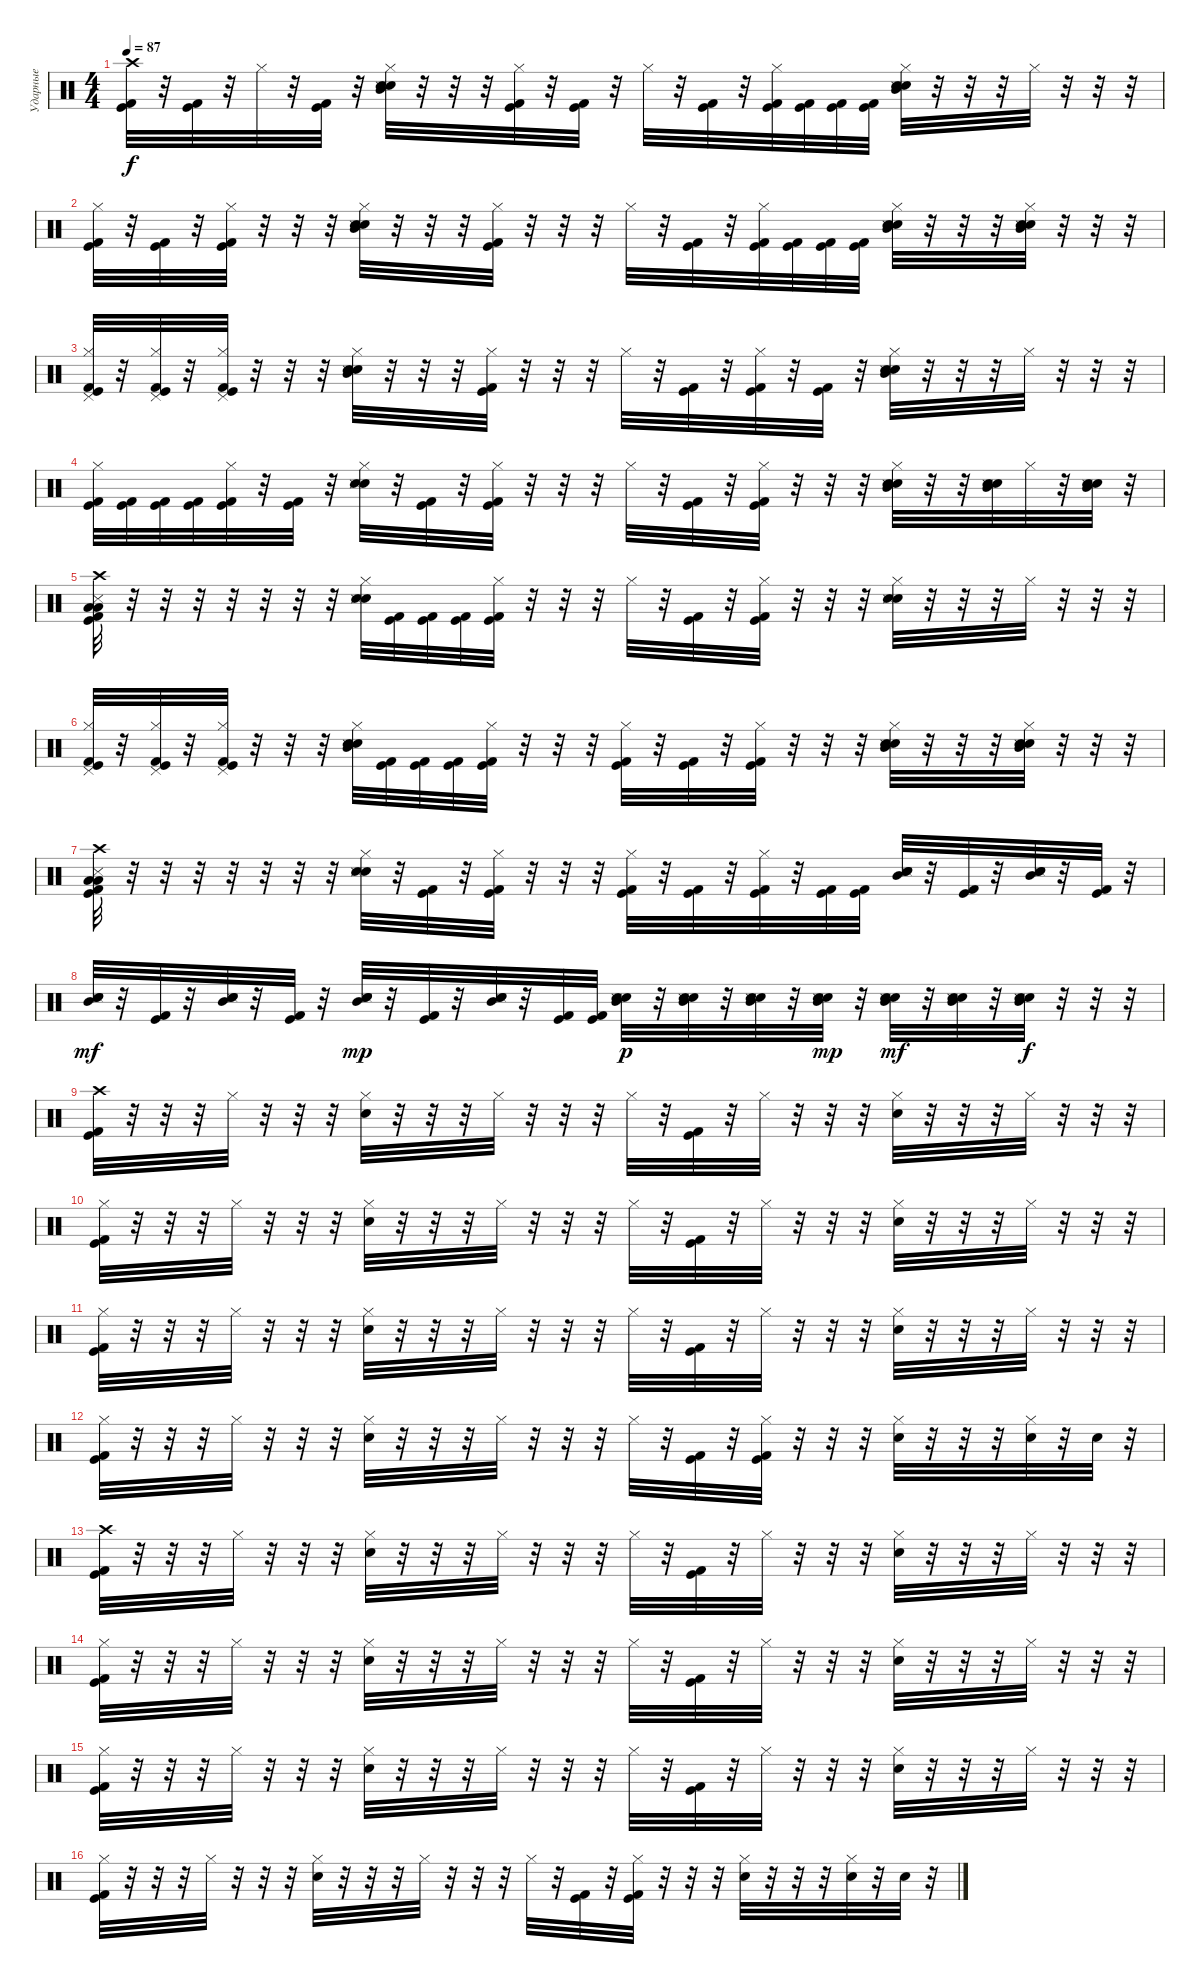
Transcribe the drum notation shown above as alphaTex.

\track ("Ударные" "Ударные") {instrument percussion}
\staff {score}
\articulation defaults
\ts (4 4)
\tempo 87
\clef neutral
\ks c
("Crash high (hit)" "Kick (hit) 2" "Kick (hit)").32{dy f} r.32 ("Kick (hit) 2" "Kick (hit)").32 r.32 "Hi-Hat (closed)".32 r.32 ("Kick (hit) 2" "Kick (hit)").32 r.32 ("Hi-Hat (closed)" "Electric Snare (hit)" "Snare (hit) 2" "Snare (side stick) 3" "Mid Tom (hit)").32 r.32 r.32 r.32 ("Hi-Hat (closed)" "Kick (hit) 2" "Kick (hit)").32 r.32 ("Kick (hit) 2" "Kick (hit)").32 r.32 "Hi-Hat (closed)".32 r.32 ("Kick (hit) 2" "Kick (hit)").32 r.32 ("Hi-Hat (closed)" "Kick (hit) 2" "Kick (hit)").32 ("Kick (hit) 2" "Kick (hit)").32 ("Kick (hit) 2" "Kick (hit)").32 ("Kick (hit) 2" "Kick (hit)").32 ("Hi-Hat (closed)" "Electric Snare (hit)" "Snare (hit) 2" "Snare (side stick) 3" "Mid Tom (hit)").32 r.32 r.32 r.32 "Hi-Hat (closed)".32 r.32 r.32 r.32 |
("Hi-Hat (closed)" "Kick (hit) 2" "Kick (hit)").32 r.32 ("Kick (hit) 2" "Kick (hit)").32 r.32 ("Hi-Hat (closed)" "Kick (hit) 2" "Kick (hit)").32 r.32 r.32 r.32 ("Hi-Hat (closed)" "Electric Snare (hit)" "Snare (hit) 2" "Snare (side stick) 3" "Mid Tom (hit)").32 r.32 r.32 r.32 ("Hi-Hat (closed)" "Kick (hit) 2" "Kick (hit)").32 r.32 r.32 r.32 "Hi-Hat (closed)".32 r.32 ("Kick (hit) 2" "Kick (hit)").32 r.32 ("Hi-Hat (closed)" "Kick (hit) 2" "Kick (hit)").32 ("Kick (hit) 2" "Kick (hit)").32 ("Kick (hit) 2" "Kick (hit)").32 ("Kick (hit) 2" "Kick (hit)").32 ("Hi-Hat (closed)" "Electric Snare (hit)" "Snare (hit) 2" "Snare (side stick) 3" "Mid Tom (hit)").32 r.32 r.32 r.32 ("Hi-Hat (closed)" "Electric Snare (hit)" "Snare (hit) 2" "Snare (side stick) 3" "Mid Tom (hit)").32 r.32 r.32 r.32 |
("Hi-Hat (closed)" "Pedal Hi-Hat (hit)" "Kick (hit) 2" "Kick (hit)").32 r.32 ("Hi-Hat (closed)" "Pedal Hi-Hat (hit)" "Kick (hit) 2" "Kick (hit)").32 r.32 ("Hi-Hat (closed)" "Pedal Hi-Hat (hit)" "Kick (hit) 2" "Kick (hit)").32 r.32 r.32 r.32 ("Hi-Hat (closed)" "Electric Snare (hit)" "Snare (hit) 2" "Snare (side stick) 3" "Mid Tom (hit)").32 r.32 r.32 r.32 ("Hi-Hat (closed)" "Kick (hit) 2" "Kick (hit)").32 r.32 r.32 r.32 "Hi-Hat (closed)".32 r.32 ("Kick (hit) 2" "Kick (hit)").32 r.32 ("Hi-Hat (closed)" "Kick (hit) 2" "Kick (hit)").32 r.32 ("Kick (hit) 2" "Kick (hit)").32 r.32 ("Hi-Hat (closed)" "Electric Snare (hit)" "Snare (hit) 2" "Snare (side stick) 3" "Mid Tom (hit)").32 r.32 r.32 r.32 "Hi-Hat (closed)".32 r.32 r.32 r.32 |
("Hi-Hat (closed)" "Kick (hit) 2" "Kick (hit)").32 ("Kick (hit) 2" "Kick (hit)").32 ("Kick (hit) 2" "Kick (hit)").32 ("Kick (hit) 2" "Kick (hit)").32 ("Hi-Hat (closed)" "Kick (hit) 2" "Kick (hit)").32 r.32 ("Kick (hit) 2" "Kick (hit)").32 r.32 ("Hi-Hat (closed)" "Electric Snare (hit)" "Snare (hit) 2" "Snare (side stick) 3").32 r.32 ("Kick (hit) 2" "Kick (hit)").32 r.32 ("Hi-Hat (closed)" "Kick (hit) 2" "Kick (hit)").32 r.32 r.32 r.32 "Hi-Hat (closed)".32 r.32 ("Kick (hit) 2" "Kick (hit)").32 r.32 ("Hi-Hat (closed)" "Kick (hit) 2" "Kick (hit)").32 r.32 r.32 r.32 ("Hi-Hat (closed)" "Electric Snare (hit)" "Snare (hit) 2" "Snare (side stick) 3" "Mid Tom (hit)").32 r.32 r.32 ("Electric Snare (hit)" "Snare (hit) 2" "Snare (side stick) 3" "Mid Tom (hit)").32 "Hi-Hat (closed)".32 r.32 ("Electric Snare (hit)" "Snare (hit) 2" "Snare (side stick) 3" "Mid Tom (hit)").32 r.32 |
("Crash high (hit)" "Low Floor Tom (hit)" "Low Tom (hit)" "Snare (side stick) 3" "Kick (hit) 2" "Kick (hit)").32 r.32 r.32 r.32 r.32 r.32 r.32 r.32 ("Hi-Hat (closed)" "Electric Snare (hit)" "Snare (hit) 2" "Snare (side stick) 3").32 ("Kick (hit) 2" "Kick (hit)").32 ("Kick (hit) 2" "Kick (hit)").32 ("Kick (hit) 2" "Kick (hit)").32 ("Hi-Hat (closed)" "Kick (hit) 2" "Kick (hit)").32 r.32 r.32 r.32 "Hi-Hat (closed)".32 r.32 ("Kick (hit) 2" "Kick (hit)").32 r.32 ("Hi-Hat (closed)" "Kick (hit) 2" "Kick (hit)").32 r.32 r.32 r.32 ("Hi-Hat (closed)" "Electric Snare (hit)" "Snare (hit) 2" "Snare (side stick) 3").32 r.32 r.32 r.32 "Hi-Hat (closed)".32 r.32 r.32 r.32 |
("Hi-Hat (closed)" "Pedal Hi-Hat (hit)" "Kick (hit) 2" "Kick (hit)").32 r.32 ("Hi-Hat (closed)" "Pedal Hi-Hat (hit)" "Kick (hit) 2" "Kick (hit)").32 r.32 ("Hi-Hat (closed)" "Pedal Hi-Hat (hit)" "Kick (hit) 2" "Kick (hit)").32 r.32 r.32 r.32 ("Hi-Hat (closed)" "Electric Snare (hit)" "Snare (hit) 2" "Snare (side stick) 3" "Mid Tom (hit)").32 ("Kick (hit) 2" "Kick (hit)").32 ("Kick (hit) 2" "Kick (hit)").32 ("Kick (hit) 2" "Kick (hit)").32 ("Hi-Hat (closed)" "Kick (hit) 2" "Kick (hit)").32 r.32 r.32 r.32 ("Hi-Hat (closed)" "Kick (hit) 2" "Kick (hit)").32 r.32 ("Kick (hit) 2" "Kick (hit)").32 r.32 ("Hi-Hat (closed)" "Kick (hit) 2" "Kick (hit)").32 r.32 r.32 r.32 ("Hi-Hat (closed)" "Electric Snare (hit)" "Snare (hit) 2" "Snare (side stick) 3" "Mid Tom (hit)").32 r.32 r.32 r.32 ("Hi-Hat (closed)" "Electric Snare (hit)" "Snare (hit) 2" "Snare (side stick) 3" "Mid Tom (hit)").32 r.32 r.32 r.32 |
("Crash high (hit)" "Low Floor Tom (hit)" "Low Tom (hit)" "Snare (side stick) 3" "Kick (hit) 2" "Kick (hit)").32 r.32 r.32 r.32 r.32 r.32 r.32 r.32 ("Hi-Hat (closed)" "Electric Snare (hit)" "Snare (hit) 2" "Snare (side stick) 3").32 r.32 ("Kick (hit) 2" "Kick (hit)").32 r.32 ("Hi-Hat (closed)" "Kick (hit) 2" "Kick (hit)").32 r.32 r.32 r.32 ("Hi-Hat (closed)" "Kick (hit) 2" "Kick (hit)").32 r.32 ("Kick (hit) 2" "Kick (hit)").32 r.32 ("Hi-Hat (closed)" "Kick (hit) 2" "Kick (hit)").32 r.32 ("Kick (hit) 2" "Kick (hit)").32 ("Kick (hit) 2" "Kick (hit)").32 ("Electric Snare (hit)" "Snare (hit) 2" "Snare (side stick) 3" "Mid Tom (hit)").32 r.32 ("Kick (hit) 2" "Kick (hit)").32 r.32 ("Electric Snare (hit)" "Snare (hit) 2" "Snare (side stick) 3" "Mid Tom (hit)").32 r.32 ("Kick (hit) 2" "Kick (hit)").32 r.32 |
("Electric Snare (hit)" "Snare (hit) 2" "Snare (side stick) 3" "Mid Tom (hit)").32{dy mf} r.32 ("Kick (hit) 2" "Kick (hit)").32 r.32 ("Electric Snare (hit)" "Snare (hit) 2" "Snare (side stick) 3" "Mid Tom (hit)").32 r.32 ("Kick (hit) 2" "Kick (hit)").32 r.32 ("Electric Snare (hit)" "Snare (hit) 2" "Snare (side stick) 3" "Mid Tom (hit)").32{dy mp} r.32 ("Kick (hit) 2" "Kick (hit)").32 r.32 ("Electric Snare (hit)" "Snare (hit) 2" "Snare (side stick) 3" "Mid Tom (hit)").32 r.32 ("Kick (hit) 2" "Kick (hit)").32 ("Kick (hit) 2" "Kick (hit)").32 ("Electric Snare (hit)" "Snare (hit) 2" "Snare (side stick) 3" "Mid Tom (hit)").32{dy p} r.32 ("Electric Snare (hit)" "Snare (hit) 2" "Snare (side stick) 3" "Mid Tom (hit)").32 r.32 ("Electric Snare (hit)" "Snare (hit) 2" "Snare (side stick) 3" "Mid Tom (hit)").32 r.32 ("Electric Snare (hit)" "Snare (hit) 2" "Snare (side stick) 3" "Mid Tom (hit)").32{dy mp} r.32 ("Electric Snare (hit)" "Snare (hit) 2" "Snare (side stick) 3" "Mid Tom (hit)").32{dy mf} r.32 ("Electric Snare (hit)" "Snare (hit) 2" "Snare (side stick) 3" "Mid Tom (hit)").32 r.32 ("Electric Snare (hit)" "Snare (hit) 2" "Snare (side stick) 3" "Mid Tom (hit)").32{dy f} r.32 r.32 r.32 |
("Crash high (hit)" "Kick (hit) 2" "Kick (hit)").32 r.32 r.32 r.32 "Hi-Hat (closed)".32 r.32 r.32 r.32 ("Hi-Hat (closed)" "Electric Snare (hit)").32 r.32 r.32 r.32 "Hi-Hat (closed)".32 r.32 r.32 r.32 "Hi-Hat (closed)".32 r.32 ("Kick (hit) 2" "Kick (hit)").32 r.32 "Hi-Hat (closed)".32 r.32 r.32 r.32 ("Hi-Hat (closed)" "Electric Snare (hit)").32 r.32 r.32 r.32 "Hi-Hat (closed)".32 r.32 r.32 r.32 |
("Hi-Hat (closed)" "Kick (hit) 2" "Kick (hit)").32 r.32 r.32 r.32 "Hi-Hat (closed)".32 r.32 r.32 r.32 ("Hi-Hat (closed)" "Electric Snare (hit)").32 r.32 r.32 r.32 "Hi-Hat (closed)".32 r.32 r.32 r.32 "Hi-Hat (closed)".32 r.32 ("Kick (hit) 2" "Kick (hit)").32 r.32 "Hi-Hat (closed)".32 r.32 r.32 r.32 ("Hi-Hat (closed)" "Electric Snare (hit)").32 r.32 r.32 r.32 "Hi-Hat (closed)".32 r.32 r.32 r.32 |
("Hi-Hat (closed)" "Kick (hit) 2" "Kick (hit)").32 r.32 r.32 r.32 "Hi-Hat (closed)".32 r.32 r.32 r.32 ("Hi-Hat (closed)" "Electric Snare (hit)").32 r.32 r.32 r.32 "Hi-Hat (closed)".32 r.32 r.32 r.32 "Hi-Hat (closed)".32 r.32 ("Kick (hit) 2" "Kick (hit)").32 r.32 "Hi-Hat (closed)".32 r.32 r.32 r.32 ("Hi-Hat (closed)" "Electric Snare (hit)").32 r.32 r.32 r.32 "Hi-Hat (closed)".32 r.32 r.32 r.32 |
("Hi-Hat (closed)" "Kick (hit) 2" "Kick (hit)").32 r.32 r.32 r.32 "Hi-Hat (closed)".32 r.32 r.32 r.32 ("Hi-Hat (closed)" "Electric Snare (hit)").32 r.32 r.32 r.32 "Hi-Hat (closed)".32 r.32 r.32 r.32 "Hi-Hat (closed)".32 r.32 ("Kick (hit) 2" "Kick (hit)").32 r.32 ("Hi-Hat (closed)" "Kick (hit) 2" "Kick (hit)").32 r.32 r.32 r.32 ("Hi-Hat (closed)" "Electric Snare (hit)").32 r.32 r.32 r.32 ("Hi-Hat (closed)" "Electric Snare (hit)").32 r.32 "Electric Snare (hit)".32 r.32 |
("Crash high (hit)" "Kick (hit) 2" "Kick (hit)").32 r.32 r.32 r.32 "Hi-Hat (closed)".32 r.32 r.32 r.32 ("Hi-Hat (closed)" "Electric Snare (hit)").32 r.32 r.32 r.32 "Hi-Hat (closed)".32 r.32 r.32 r.32 "Hi-Hat (closed)".32 r.32 ("Kick (hit) 2" "Kick (hit)").32 r.32 "Hi-Hat (closed)".32 r.32 r.32 r.32 ("Hi-Hat (closed)" "Electric Snare (hit)").32 r.32 r.32 r.32 "Hi-Hat (closed)".32 r.32 r.32 r.32 |
("Hi-Hat (closed)" "Kick (hit) 2" "Kick (hit)").32 r.32 r.32 r.32 "Hi-Hat (closed)".32 r.32 r.32 r.32 ("Hi-Hat (closed)" "Electric Snare (hit)").32 r.32 r.32 r.32 "Hi-Hat (closed)".32 r.32 r.32 r.32 "Hi-Hat (closed)".32 r.32 ("Kick (hit) 2" "Kick (hit)").32 r.32 "Hi-Hat (closed)".32 r.32 r.32 r.32 ("Hi-Hat (closed)" "Electric Snare (hit)").32 r.32 r.32 r.32 "Hi-Hat (closed)".32 r.32 r.32 r.32 |
("Hi-Hat (closed)" "Kick (hit) 2" "Kick (hit)").32 r.32 r.32 r.32 "Hi-Hat (closed)".32 r.32 r.32 r.32 ("Hi-Hat (closed)" "Electric Snare (hit)").32 r.32 r.32 r.32 "Hi-Hat (closed)".32 r.32 r.32 r.32 "Hi-Hat (closed)".32 r.32 ("Kick (hit) 2" "Kick (hit)").32 r.32 "Hi-Hat (closed)".32 r.32 r.32 r.32 ("Hi-Hat (closed)" "Electric Snare (hit)").32 r.32 r.32 r.32 "Hi-Hat (closed)".32 r.32 r.32 r.32 |
("Hi-Hat (closed)" "Kick (hit) 2" "Kick (hit)").32 r.32 r.32 r.32 "Hi-Hat (closed)".32 r.32 r.32 r.32 ("Hi-Hat (closed)" "Electric Snare (hit)").32 r.32 r.32 r.32 "Hi-Hat (closed)".32 r.32 r.32 r.32 "Hi-Hat (closed)".32 r.32 ("Kick (hit) 2" "Kick (hit)").32 r.32 ("Hi-Hat (closed)" "Kick (hit) 2" "Kick (hit)").32 r.32 r.32 r.32 ("Hi-Hat (closed)" "Electric Snare (hit)").32 r.32 r.32 r.32 ("Hi-Hat (closed)" "Electric Snare (hit)").32 r.32 "Electric Snare (hit)".32 r.32
